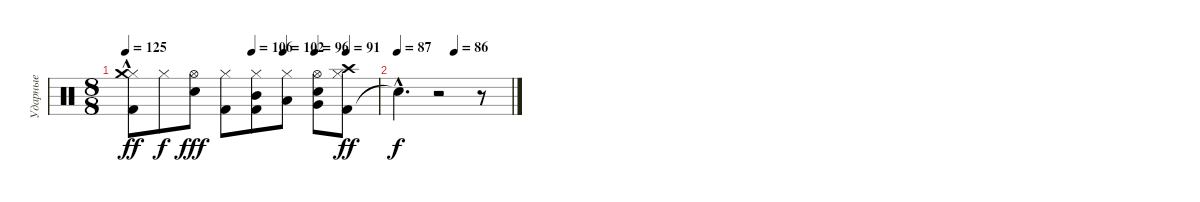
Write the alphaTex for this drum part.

\track ("Ударные" "Ударные") {instrument percussion}
\staff {score}
\articulation defaults
\ts (8 8)
\tempo 125
\tempo (106 0.5)
\tempo (102 0.625)
\tempo (96 0.75)
\tempo (91 0.875)
\clef neutral
\ks c
("Kick (hit) 2" "Hi-Hat (closed)" "Crash medium (hit)"{hac}).8{dy ff} "Hi-Hat (closed)".8{dy f} ("Hi-Hat (open)" "Snare (hit) 2").8{dy fff} ("Kick (hit) 2" "Hi-Hat (closed)").8 ("Kick (hit) 2" "Hi-Hat (closed)" "Mid Tom (hit)").8 ("Hi-Hat (closed)" "Low Tom (hit)").8 ("Hi-Hat (open)" "Snare (hit) 2" "Very Low Tom (hit)").8 ("Kick (hit) 2" "Hi-Hat (closed)" "Crash high (hit)").8{dy ff} |
\tempo 87
\tempo (86 0.5)
"Snare (hit)"{hac t}.4{d dy f} r.2 r.8
